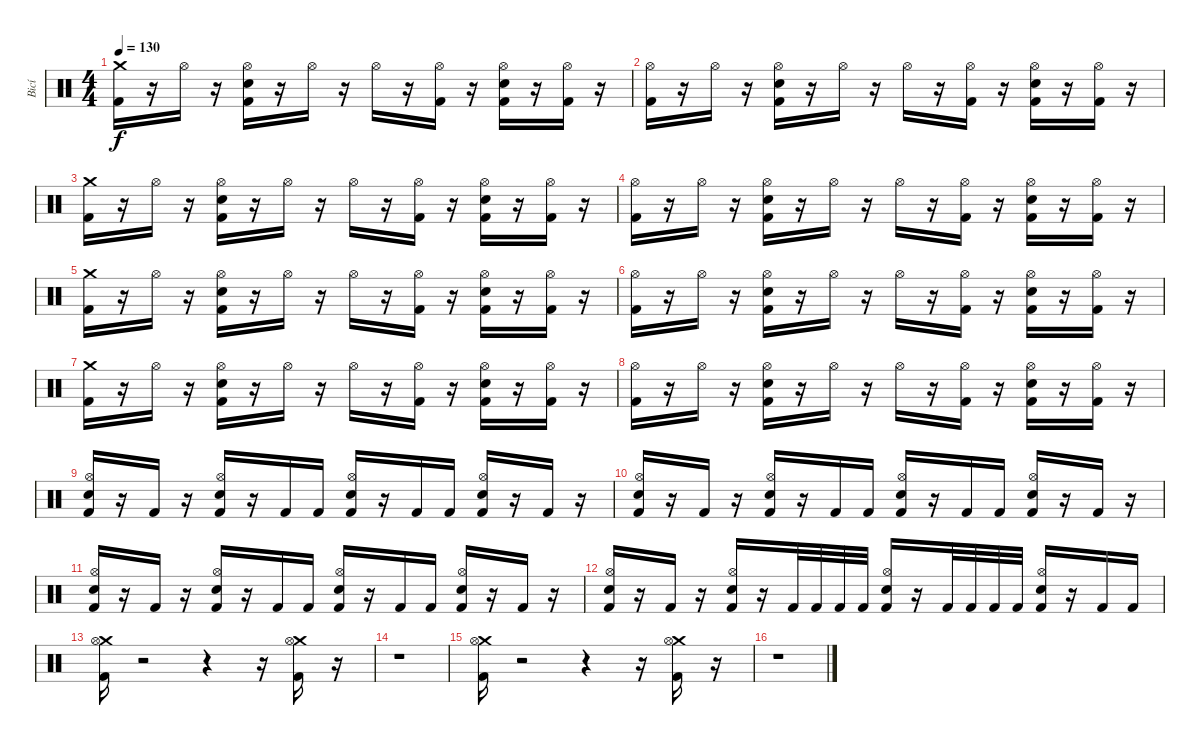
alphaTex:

\track ("Bicí" "Bicí") {instrument percussion}
\staff {score}
\articulation defaults
\ts (4 4)
\tempo 130
\clef neutral
\ks c
("Crash medium (hit)" "Kick (hit) 2").16{dy f} r.16 "Hi-Hat (open)".16 r.16 ("Hi-Hat (open)" "Electric Snare (hit)" "Kick (hit) 2").16 r.16 "Hi-Hat (open)".16 r.16 "Hi-Hat (open)".16 r.16 ("Hi-Hat (open)" "Kick (hit) 2").16 r.16 ("Hi-Hat (open)" "Electric Snare (hit)" "Kick (hit) 2").16 r.16 ("Hi-Hat (open)" "Kick (hit) 2").16 r.16 |
("Hi-Hat (open)" "Kick (hit) 2").16 r.16 "Hi-Hat (open)".16 r.16 ("Hi-Hat (open)" "Electric Snare (hit)" "Kick (hit) 2").16 r.16 "Hi-Hat (open)".16 r.16 "Hi-Hat (open)".16 r.16 ("Hi-Hat (open)" "Kick (hit) 2").16 r.16 ("Hi-Hat (open)" "Electric Snare (hit)" "Kick (hit) 2").16 r.16 ("Hi-Hat (open)" "Kick (hit) 2").16 r.16 |
("Crash medium (hit)" "Kick (hit) 2").16 r.16 "Hi-Hat (open)".16 r.16 ("Hi-Hat (open)" "Electric Snare (hit)" "Kick (hit) 2").16 r.16 "Hi-Hat (open)".16 r.16 "Hi-Hat (open)".16 r.16 ("Hi-Hat (open)" "Kick (hit) 2").16 r.16 ("Hi-Hat (open)" "Electric Snare (hit)" "Kick (hit) 2").16 r.16 ("Hi-Hat (open)" "Kick (hit) 2").16 r.16 |
("Hi-Hat (open)" "Kick (hit) 2").16 r.16 "Hi-Hat (open)".16 r.16 ("Hi-Hat (open)" "Electric Snare (hit)" "Kick (hit) 2").16 r.16 "Hi-Hat (open)".16 r.16 "Hi-Hat (open)".16 r.16 ("Hi-Hat (open)" "Kick (hit) 2").16 r.16 ("Hi-Hat (open)" "Electric Snare (hit)" "Kick (hit) 2").16 r.16 ("Hi-Hat (open)" "Kick (hit) 2").16 r.16 |
("Crash medium (hit)" "Kick (hit) 2").16 r.16 "Hi-Hat (open)".16 r.16 ("Hi-Hat (open)" "Electric Snare (hit)" "Kick (hit) 2").16 r.16 "Hi-Hat (open)".16 r.16 "Hi-Hat (open)".16 r.16 ("Hi-Hat (open)" "Kick (hit) 2").16 r.16 ("Hi-Hat (open)" "Electric Snare (hit)" "Kick (hit) 2").16 r.16 ("Hi-Hat (open)" "Kick (hit) 2").16 r.16 |
("Hi-Hat (open)" "Kick (hit) 2").16 r.16 "Hi-Hat (open)".16 r.16 ("Hi-Hat (open)" "Electric Snare (hit)" "Kick (hit) 2").16 r.16 "Hi-Hat (open)".16 r.16 "Hi-Hat (open)".16 r.16 ("Hi-Hat (open)" "Kick (hit) 2").16 r.16 ("Hi-Hat (open)" "Electric Snare (hit)" "Kick (hit) 2").16 r.16 ("Hi-Hat (open)" "Kick (hit) 2").16 r.16 |
("Crash medium (hit)" "Kick (hit) 2").16 r.16 "Hi-Hat (open)".16 r.16 ("Hi-Hat (open)" "Electric Snare (hit)" "Kick (hit) 2").16 r.16 "Hi-Hat (open)".16 r.16 "Hi-Hat (open)".16 r.16 ("Hi-Hat (open)" "Kick (hit) 2").16 r.16 ("Hi-Hat (open)" "Electric Snare (hit)" "Kick (hit) 2").16 r.16 ("Hi-Hat (open)" "Kick (hit) 2").16 r.16 |
("Hi-Hat (open)" "Kick (hit) 2").16 r.16 "Hi-Hat (open)".16 r.16 ("Hi-Hat (open)" "Electric Snare (hit)" "Kick (hit) 2").16 r.16 "Hi-Hat (open)".16 r.16 "Hi-Hat (open)".16 r.16 ("Hi-Hat (open)" "Kick (hit) 2").16 r.16 ("Hi-Hat (open)" "Electric Snare (hit)" "Kick (hit) 2").16 r.16 ("Hi-Hat (open)" "Kick (hit) 2").16 r.16 |
("Hi-Hat (open)" "Electric Snare (hit)" "Kick (hit) 2").16 r.16 "Kick (hit) 2".16 r.16 ("Hi-Hat (open)" "Electric Snare (hit)" "Kick (hit) 2").16 r.16 "Kick (hit) 2".16 "Kick (hit) 2".16 ("Hi-Hat (open)" "Electric Snare (hit)" "Kick (hit) 2").16 r.16 "Kick (hit) 2".16 "Kick (hit) 2".16 ("Hi-Hat (open)" "Electric Snare (hit)" "Kick (hit) 2").16 r.16 "Kick (hit) 2".16 r.16 |
("Hi-Hat (open)" "Electric Snare (hit)" "Kick (hit) 2").16 r.16 "Kick (hit) 2".16 r.16 ("Hi-Hat (open)" "Electric Snare (hit)" "Kick (hit) 2").16 r.16 "Kick (hit) 2".16 "Kick (hit) 2".16 ("Hi-Hat (open)" "Electric Snare (hit)" "Kick (hit) 2").16 r.16 "Kick (hit) 2".16 "Kick (hit) 2".16 ("Hi-Hat (open)" "Electric Snare (hit)" "Kick (hit) 2").16 r.16 "Kick (hit) 2".16 r.16 |
("Hi-Hat (open)" "Electric Snare (hit)" "Kick (hit) 2").16 r.16 "Kick (hit) 2".16 r.16 ("Hi-Hat (open)" "Electric Snare (hit)" "Kick (hit) 2").16 r.16 "Kick (hit) 2".16 "Kick (hit) 2".16 ("Hi-Hat (open)" "Electric Snare (hit)" "Kick (hit) 2").16 r.16 "Kick (hit) 2".16 "Kick (hit) 2".16 ("Hi-Hat (open)" "Electric Snare (hit)" "Kick (hit) 2").16 r.16 "Kick (hit) 2".16 r.16 |
("Hi-Hat (open)" "Electric Snare (hit)" "Kick (hit) 2").16 r.16 "Kick (hit) 2".16 r.16 ("Hi-Hat (open)" "Electric Snare (hit)" "Kick (hit) 2").16 r.16 "Kick (hit) 2".32 "Kick (hit) 2".32 "Kick (hit) 2".32 "Kick (hit) 2".32 ("Hi-Hat (open)" "Electric Snare (hit)" "Kick (hit) 2").16 r.16 "Kick (hit) 2".32 "Kick (hit) 2".32 "Kick (hit) 2".32 "Kick (hit) 2".32 ("Hi-Hat (open)" "Electric Snare (hit)" "Kick (hit) 2").16 r.16 "Kick (hit) 2".16 "Kick (hit) 2".16 |
("Crash medium (hit)" "Hi-Hat (open)" "Kick (hit) 2").16 r.2 r.4 r.16 ("Crash medium (hit)" "Hi-Hat (open)" "Kick (hit) 2").16 r.16 |
r.1 |
("Crash medium (hit)" "Hi-Hat (open)" "Kick (hit) 2").16 r.2 r.4 r.16 ("Crash medium (hit)" "Hi-Hat (open)" "Kick (hit) 2").16 r.16 |
r.1
